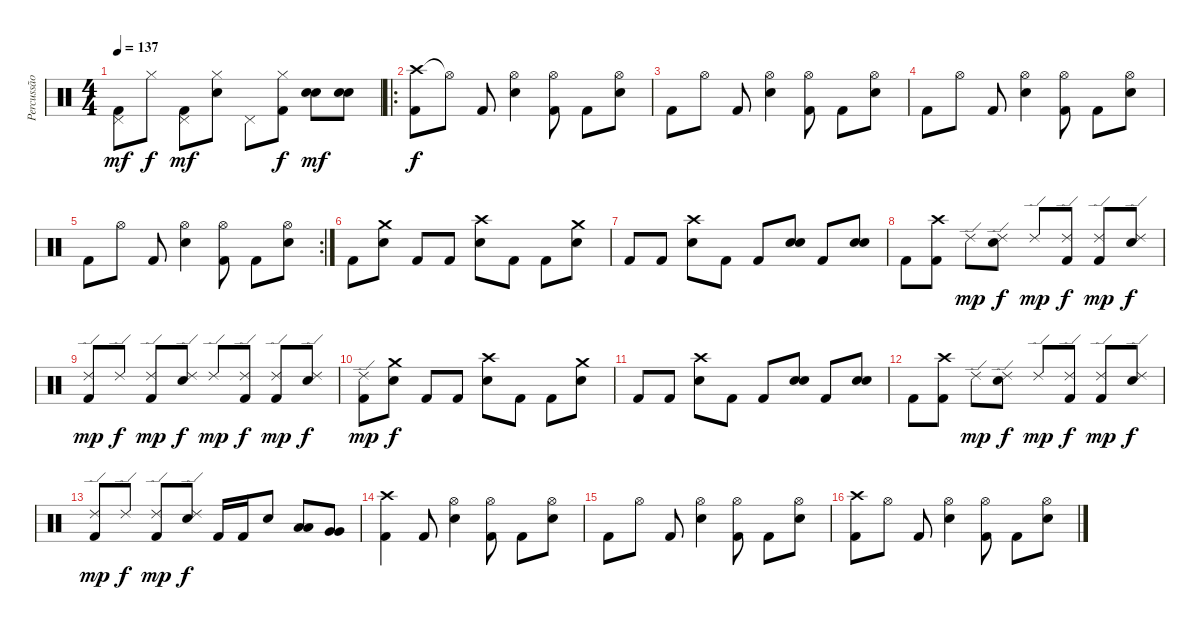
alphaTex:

\track ("Percussão" "Percussão") {instrument percussion}
\staff {score}
\articulation defaults
\ts (4 4)
\tempo 137
\clef neutral
\ks c
("Pedal Hi-Hat (hit)" "Kick (hit) 2").8{dy mf} "Hi-Hat (closed)".8{dy f} ("Pedal Hi-Hat (hit)" "Kick (hit) 2").8{dy mf} ("Hi-Hat (closed)" "Electric Snare (hit)").8 "Pedal Hi-Hat (hit)".8 ("Hi-Hat (closed)" "Kick (hit) 2").8{dy f} ("Electric Snare (hit)" "Electric Snare (hit)").8{bd 30 dy mf} ("Electric Snare (hit)" "Electric Snare (hit)").8{bd 30} |
\ro
("Crash high (hit)" "Kick (hit) 2").8{dy f} "Hi-Hat (open)"{t}.8 "Kick (hit) 2".8 ("Hi-Hat (open)" "Electric Snare (hit)").4 ("Hi-Hat (open)" "Kick (hit) 2").8 "Kick (hit) 2".8 ("Hi-Hat (open)" "Electric Snare (hit)").8 |
"Kick (hit) 2".8 "Hi-Hat (open)".8 "Kick (hit) 2".8 ("Hi-Hat (open)" "Electric Snare (hit)").4 ("Hi-Hat (open)" "Kick (hit) 2").8 "Kick (hit) 2".8 ("Hi-Hat (open)" "Electric Snare (hit)").8 |
"Kick (hit) 2".8 "Hi-Hat (open)".8 "Kick (hit) 2".8 ("Hi-Hat (open)" "Electric Snare (hit)").4 ("Hi-Hat (open)" "Kick (hit) 2").8 "Kick (hit) 2".8 ("Hi-Hat (open)" "Electric Snare (hit)").8 |
\rc 2 "Kick (hit) 2".8 "Hi-Hat (open)".8 "Kick (hit) 2".8
("Hi-Hat (open)" "Electric Snare (hit)").4 ("Hi-Hat (open)" "Kick (hit) 2").8 "Kick (hit) 2".8 ("Hi-Hat (open)" "Electric Snare (hit)").8 |
"Kick (hit) 2".8 ("Crash medium (hit)" "Electric Snare (hit)").8 "Kick (hit) 2".8 "Kick (hit) 2".8 ("Crash high (hit)" "Electric Snare (hit)").8 "Kick (hit) 2".8 "Kick (hit) 2".8 ("Crash medium (hit)" "Electric Snare (hit)").8 |
"Kick (hit) 2".8 "Kick (hit) 2".8 ("Crash high (hit)" "Electric Snare (hit)").8 "Kick (hit) 2".8 "Kick (hit) 2".8 ("Electric Snare (hit)" "Electric Snare (hit)").8{bd 60} "Kick (hit) 2".8 ("Electric Snare (hit)" "Electric Snare (hit)").8{bd 60} |
"Kick (hit) 2".8 ("Crash high (hit)" "Kick (hit) 2").8 "Ride (edge) 2".8{dy mp} ("Ride (edge) 2" "Electric Snare (hit)").8{dy f} "Ride (edge) 2".8{dy mp} ("Ride (edge) 2" "Kick (hit) 2").8{dy f} ("Ride (edge) 2" "Kick (hit) 2").8{dy mp} ("Ride (edge) 2" "Electric Snare (hit)").8{dy f} |
("Ride (edge) 2" "Kick (hit) 2").8{dy mp} "Ride (edge) 2".8{dy f} ("Ride (edge) 2" "Kick (hit) 2").8{dy mp} ("Ride (edge) 2" "Electric Snare (hit)").8{dy f} "Ride (edge) 2".8{dy mp} ("Ride (edge) 2" "Kick (hit) 2").8{dy f} ("Ride (edge) 2" "Kick (hit) 2").8{dy mp} ("Ride (edge) 2" "Electric Snare (hit)").8{dy f} |
("Ride (edge) 2" "Kick (hit) 2").8{dy mp} ("Crash medium (hit)" "Electric Snare (hit)").8{dy f} "Kick (hit) 2".8 "Kick (hit) 2".8 ("Crash high (hit)" "Electric Snare (hit)").8 "Kick (hit) 2".8 "Kick (hit) 2".8 ("Crash medium (hit)" "Electric Snare (hit)").8 |
"Kick (hit) 2".8 "Kick (hit) 2".8 ("Crash high (hit)" "Electric Snare (hit)").8 "Kick (hit) 2".8 "Kick (hit) 2".8 ("Electric Snare (hit)" "Electric Snare (hit)").8{bd 60} "Kick (hit) 2".8 ("Electric Snare (hit)" "Electric Snare (hit)").8{bd 60} |
"Kick (hit) 2".8 ("Crash high (hit)" "Kick (hit) 2").8 "Ride (edge) 2".8{dy mp} ("Ride (edge) 2" "Electric Snare (hit)").8{dy f} "Ride (edge) 2".8{dy mp} ("Ride (edge) 2" "Kick (hit) 2").8{dy f} ("Ride (edge) 2" "Kick (hit) 2").8{dy mp} ("Ride (edge) 2" "Electric Snare (hit)").8{dy f} |
("Ride (edge) 2" "Kick (hit) 2").8{dy mp} "Ride (edge) 2".8{dy f} ("Ride (edge) 2" "Kick (hit) 2").8{dy mp} ("Ride (edge) 2" "Electric Snare (hit)").8{dy f} "Kick (hit) 2".16 "Kick (hit) 2".16 "Electric Snare (hit)".8 ("Low Tom (hit)" "Low Tom (hit)").8 ("Very Low Tom (hit)" "Very Low Tom (hit)").8 |
("Crash high (hit)" "Kick (hit) 2").4 "Kick (hit) 2".8 ("Hi-Hat (open)" "Electric Snare (hit)").4 ("Hi-Hat (open)" "Kick (hit) 2").8 "Kick (hit) 2".8 ("Hi-Hat (open)" "Electric Snare (hit)").8 |
"Kick (hit) 2".8 "Hi-Hat (open)".8 "Kick (hit) 2".8 ("Hi-Hat (open)" "Electric Snare (hit)").4 ("Hi-Hat (open)" "Kick (hit) 2").8 "Kick (hit) 2".8 ("Hi-Hat (open)" "Electric Snare (hit)").8 |
("Crash high (hit)" "Kick (hit) 2").8 "Hi-Hat (open)".8 "Kick (hit) 2".8 ("Hi-Hat (open)" "Electric Snare (hit)").4 ("Hi-Hat (open)" "Kick (hit) 2").8 "Kick (hit) 2".8 ("Hi-Hat (open)" "Electric Snare (hit)").8
